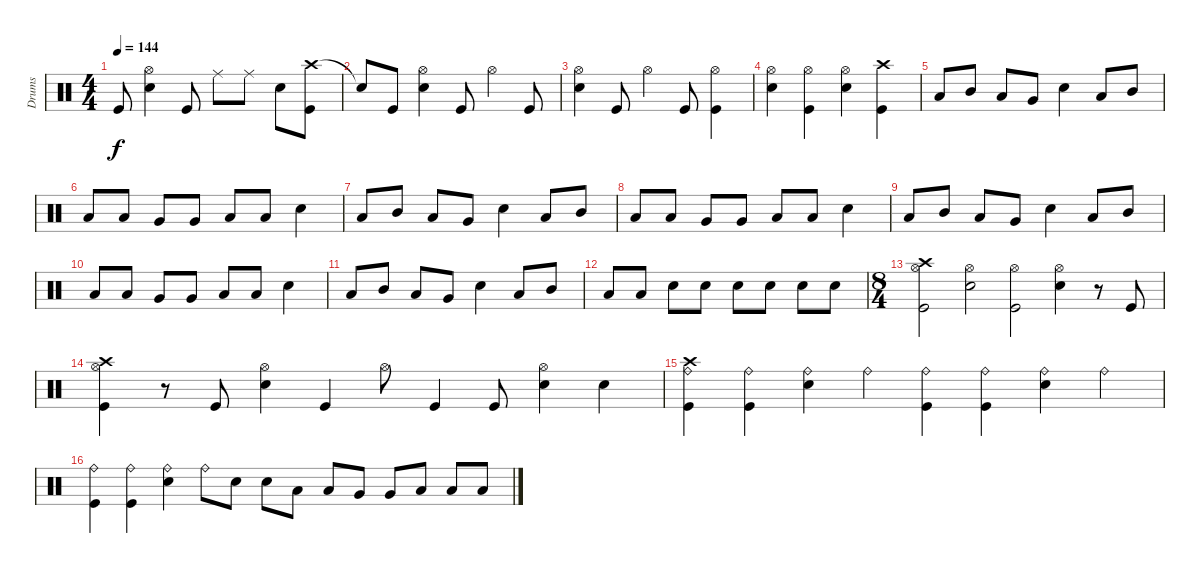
\track ("Drums" "Drums") {instrument percussion}
\staff {score}
\articulation defaults
\ts (4 4)
\tempo 144
\clef neutral
\ks c "Kick (hit)".8{dy f}
("Hi-Hat (open)" "Snare (hit) 2").4 "Kick (hit)".8 "Ride (middle)".8 "Ride (middle)".8 "Snare (hit) 2".8 ("Crash high (hit)" "Kick (hit)").8 |
"Snare (hit)"{t}.8 "Kick (hit)".8 ("Hi-Hat (open)" "Snare (hit) 2").4 "Kick (hit)".8 "Hi-Hat (open)".4 "Kick (hit)".8 |
("Hi-Hat (open)" "Snare (hit) 2").4 "Kick (hit)".8 "Hi-Hat (open)".4 "Kick (hit)".8 ("Hi-Hat (open)" "Kick (hit)").4 |
("Hi-Hat (open)" "Snare (hit) 2").4 ("Hi-Hat (open)" "Kick (hit)").4 ("Hi-Hat (open)" "Snare (hit) 2").4 ("Crash high (hit)" "Kick (hit)").4 |
"Low Tom (hit)".8 "Mid Tom (hit)".8 "Low Tom (hit)".8 "Very Low Tom (hit)".8 "Snare (hit) 2".4 "Low Tom (hit)".8 "Mid Tom (hit)".8 |
"Low Tom (hit)".8 "Low Tom (hit)".8 "Very Low Tom (hit)".8 "Very Low Tom (hit)".8 "Low Floor Tom (hit)".8 "Low Floor Tom (hit)".8 "Snare (hit) 2".4 |
"Low Tom (hit)".8 "Mid Tom (hit)".8 "Low Tom (hit)".8 "Very Low Tom (hit)".8 "Snare (hit) 2".4 "Low Tom (hit)".8 "Mid Tom (hit)".8 |
"Low Tom (hit)".8 "Low Tom (hit)".8 "Very Low Tom (hit)".8 "Very Low Tom (hit)".8 "Low Floor Tom (hit)".8 "Low Floor Tom (hit)".8 "Snare (hit) 2".4 |
"Low Tom (hit)".8 "Mid Tom (hit)".8 "Low Tom (hit)".8 "Very Low Tom (hit)".8 "Snare (hit) 2".4 "Low Tom (hit)".8 "Mid Tom (hit)".8 |
"Low Tom (hit)".8 "Low Tom (hit)".8 "Very Low Tom (hit)".8 "Very Low Tom (hit)".8 "Low Floor Tom (hit)".8 "Low Floor Tom (hit)".8 "Snare (hit) 2".4 |
"Low Tom (hit)".8 "Mid Tom (hit)".8 "Low Tom (hit)".8 "Very Low Tom (hit)".8 "Snare (hit) 2".4 "Low Tom (hit)".8 "Mid Tom (hit)".8 |
"Low Tom (hit)".8 "Low Tom (hit)".8 "Snare (hit) 2".8 "Snare (hit) 2".8 "Snare (hit) 2".8 "Snare (hit) 2".8 "Snare (hit) 2".8 "Snare (hit) 2".8 |
\ts (8 4)
("Crash high (hit)" "Hi-Hat (open)" "Kick (hit)").2 ("Hi-Hat (open)" "Snare (hit) 2").2 ("Hi-Hat (open)" "Kick (hit)").2 ("Hi-Hat (open)" "Snare (hit) 2").4 r.8 "Kick (hit)".8 |
("Crash high (hit)" "Hi-Hat (open)" "Kick (hit)").4 r.8 "Kick (hit)".8 ("Hi-Hat (open)" "Snare (hit) 2").4 "Kick (hit)".4 "Hi-Hat (open)".8 "Kick (hit)".4 "Kick (hit)".8 ("Hi-Hat (open)" "Snare (hit) 2").4 "Snare (hit) 2".4 |
("Crash high (hit)" "Ride (bell)" "Kick (hit)").4 ("Ride (bell)" "Kick (hit)").4 ("Ride (bell)" "Snare (hit) 2").4 "Ride (bell)".4 ("Ride (bell)" "Kick (hit)").4 ("Ride (bell)" "Kick (hit)").4 ("Ride (bell)" "Snare (hit) 2").4 "Ride (bell)".4 |
("Ride (bell)" "Kick (hit)").4 ("Ride (bell)" "Kick (hit)").4 ("Ride (bell)" "Snare (hit) 2").4 "Ride (bell)".8 "Snare (hit) 2".8 "Snare (hit) 2".8 "Low Tom (hit)".8 "Low Tom (hit)".8 "Very Low Tom (hit)".8 "Very Low Tom (hit)".8 "Low Floor Tom (hit)".8 "Low Floor Tom (hit)".8 "Low Floor Tom (hit)".8
